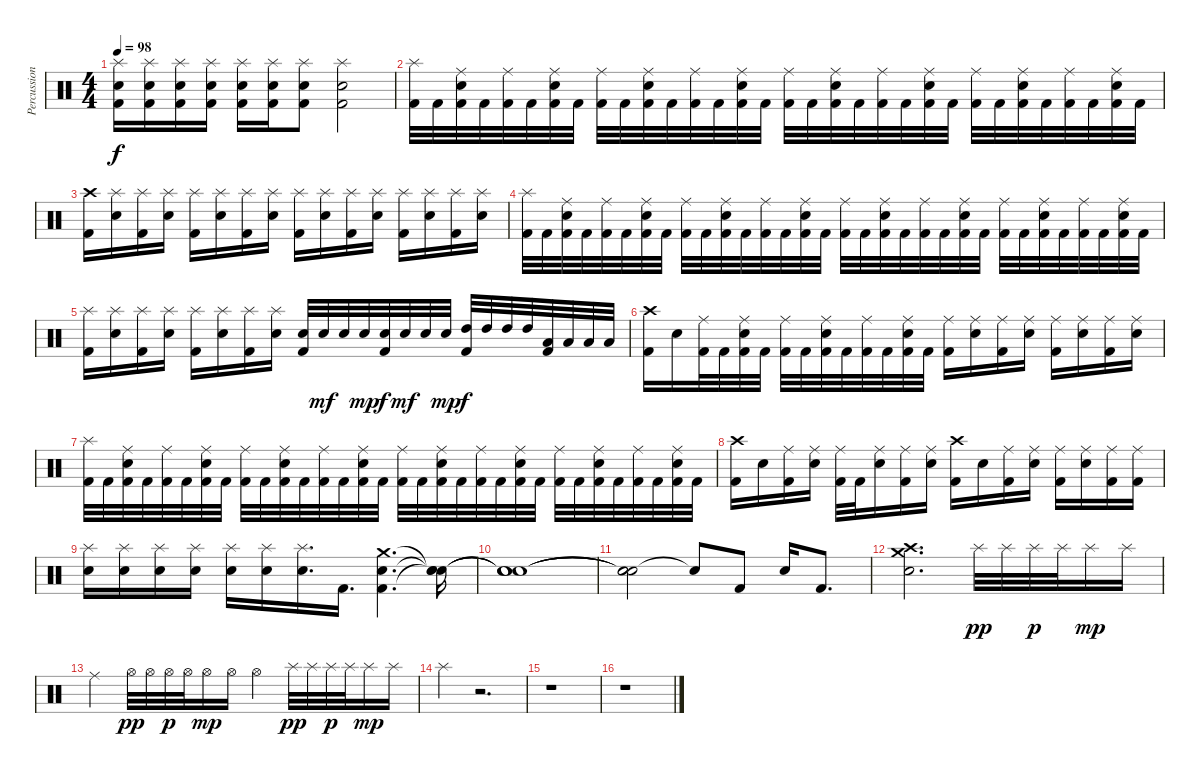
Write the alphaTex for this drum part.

\track ("Percussion" "Percussion") {instrument percussion}
\staff {score}
\articulation defaults
\ts (4 4)
\tempo 98
\clef neutral
\ks c
("Splash (hit)" "Snare (hit) 2" "Kick (hit) 2").16{dy f} ("Splash (hit)" "Snare (hit) 2" "Kick (hit) 2").16 ("Splash (hit)" "Snare (hit) 2" "Kick (hit) 2").16 ("Splash (hit)" "Snare (hit) 2" "Kick (hit) 2").16 ("Splash (hit)" "Snare (hit) 2" "Kick (hit) 2").16 ("Splash (hit)" "Snare (hit) 2" "Kick (hit) 2").16 ("Splash (hit)" "Snare (hit) 2" "Kick (hit) 2").8 ("Splash (hit)" "Snare (hit) 2" "Kick (hit) 2").2 |
("Splash (hit)" "Kick (hit) 2").32 "Kick (hit) 2".32 ("Ride (middle)" "Snare (hit) 2" "Kick (hit) 2").32 "Kick (hit) 2".32 ("Ride (middle)" "Kick (hit) 2").32 "Kick (hit) 2".32 ("Ride (middle)" "Snare (hit) 2" "Kick (hit) 2").32 "Kick (hit) 2".32 ("Ride (middle)" "Kick (hit) 2").32 "Kick (hit) 2".32 ("Ride (middle)" "Snare (hit) 2" "Kick (hit) 2").32 "Kick (hit) 2".32 ("Ride (middle)" "Kick (hit) 2").32 "Kick (hit) 2".32 ("Ride (middle)" "Snare (hit) 2" "Kick (hit) 2").32 "Kick (hit) 2".32 ("Ride (middle)" "Kick (hit) 2").32 "Kick (hit) 2".32 ("Ride (middle)" "Snare (hit) 2" "Kick (hit) 2").32 "Kick (hit) 2".32 ("Ride (middle)" "Kick (hit) 2").32 "Kick (hit) 2".32 ("Ride (middle)" "Snare (hit) 2" "Kick (hit) 2").32 "Kick (hit) 2".32 ("Ride (middle)" "Kick (hit) 2").32 "Kick (hit) 2".32 ("Ride (middle)" "Snare (hit) 2" "Kick (hit) 2").32 "Kick (hit) 2".32 ("Ride (middle)" "Kick (hit) 2").32 "Kick (hit) 2".32 ("Ride (middle)" "Snare (hit) 2" "Kick (hit) 2").32 "Kick (hit) 2".32 |
("Crash high (hit)" "Kick (hit) 2").16 ("Splash (hit)" "Snare (hit) 2").16 ("Splash (hit)" "Kick (hit) 2").16 ("Splash (hit)" "Snare (hit) 2").16 ("Splash (hit)" "Kick (hit) 2").16 ("Splash (hit)" "Snare (hit) 2").16 ("Splash (hit)" "Kick (hit) 2").16 ("Splash (hit)" "Snare (hit) 2").16 ("Splash (hit)" "Kick (hit) 2").16 ("Splash (hit)" "Snare (hit) 2").16 ("Splash (hit)" "Kick (hit) 2").16 ("Splash (hit)" "Snare (hit) 2").16 ("Splash (hit)" "Kick (hit) 2").16 ("Splash (hit)" "Snare (hit) 2").16 ("Splash (hit)" "Kick (hit) 2").16 ("Splash (hit)" "Snare (hit) 2").16 |
("Splash (hit)" "Kick (hit) 2").32 "Kick (hit) 2".32 ("Ride (middle)" "Snare (hit) 2" "Kick (hit) 2").32 "Kick (hit) 2".32 ("Ride (middle)" "Kick (hit) 2").32 "Kick (hit) 2".32 ("Ride (middle)" "Snare (hit) 2" "Kick (hit) 2").32 "Kick (hit) 2".32 ("Ride (middle)" "Kick (hit) 2").32 "Kick (hit) 2".32 ("Ride (middle)" "Snare (hit) 2" "Kick (hit) 2").32 "Kick (hit) 2".32 ("Ride (middle)" "Kick (hit) 2").32 "Kick (hit) 2".32 ("Ride (middle)" "Snare (hit) 2" "Kick (hit) 2").32 "Kick (hit) 2".32 ("Ride (middle)" "Kick (hit) 2").32 "Kick (hit) 2".32 ("Ride (middle)" "Snare (hit) 2" "Kick (hit) 2").32 "Kick (hit) 2".32 ("Ride (middle)" "Kick (hit) 2").32 "Kick (hit) 2".32 ("Ride (middle)" "Snare (hit) 2" "Kick (hit) 2").32 "Kick (hit) 2".32 ("Ride (middle)" "Kick (hit) 2").32 "Kick (hit) 2".32 ("Ride (middle)" "Snare (hit) 2" "Kick (hit) 2").32 "Kick (hit) 2".32 ("Ride (middle)" "Kick (hit) 2").32 "Kick (hit) 2".32 ("Ride (middle)" "Snare (hit) 2" "Kick (hit) 2").32 "Kick (hit) 2".32 |
("Splash (hit)" "Kick (hit) 2").16 ("Splash (hit)" "Snare (hit) 2").16 ("Splash (hit)" "Kick (hit) 2").16 ("Splash (hit)" "Snare (hit) 2").16 ("Splash (hit)" "Kick (hit) 2").16 ("Splash (hit)" "Snare (hit) 2").16 ("Splash (hit)" "Kick (hit) 2").16 ("Splash (hit)" "Snare (hit) 2").16 ("Snare (hit) 2" "Kick (hit) 2").32 "Snare (hit) 2".32{dy mf} "Snare (hit) 2".32 "Snare (hit) 2".32{dy mp} ("Snare (hit) 2" "Kick (hit) 2").32{dy f} "Snare (hit) 2".32{dy mf} "Snare (hit) 2".32 "Snare (hit) 2".32{dy mp} ("High Tom (hit)" "Kick (hit) 2").32{dy f} "High Tom (hit)".32 "High Tom (hit)".32 "High Tom (hit)".32 ("Low Tom (hit)" "Kick (hit) 2").32 "Low Tom (hit)".32 "Low Tom (hit)".32 "Low Tom (hit)".32 |
("Kick (hit) 2" "Crash high (hit)").16 "Snare (hit) 2".16 ("Kick (hit) 2" "Ride (middle)").32 "Kick (hit) 2".32 ("Kick (hit) 2" "Snare (hit) 2" "Ride (middle)").32 "Kick (hit) 2".32 ("Kick (hit) 2" "Ride (middle)").32 "Kick (hit) 2".32 ("Kick (hit) 2" "Snare (hit) 2" "Ride (middle)").32 "Kick (hit) 2".32 ("Kick (hit) 2" "Ride (middle)").32 "Kick (hit) 2".32 ("Kick (hit) 2" "Snare (hit) 2" "Ride (middle)").32 "Kick (hit) 2".32 ("Kick (hit) 2" "Ride (middle)").16 ("Snare (hit) 2" "Ride (middle)").16 ("Kick (hit) 2" "Ride (middle)").16 ("Snare (hit) 2" "Ride (middle)").16 ("Kick (hit) 2" "Ride (middle)").16 ("Snare (hit) 2" "Ride (middle)").16 ("Kick (hit) 2" "Ride (middle)").16 ("Snare (hit) 2" "Ride (middle)").16 |
("Splash (hit)" "Kick (hit) 2").32 "Kick (hit) 2".32 ("Ride (middle)" "Snare (hit) 2" "Kick (hit) 2").32 "Kick (hit) 2".32 ("Ride (middle)" "Kick (hit) 2").32 "Kick (hit) 2".32 ("Ride (middle)" "Snare (hit) 2" "Kick (hit) 2").32 "Kick (hit) 2".32 ("Ride (middle)" "Kick (hit) 2").32 "Kick (hit) 2".32 ("Ride (middle)" "Snare (hit) 2" "Kick (hit) 2").32 "Kick (hit) 2".32 ("Ride (middle)" "Kick (hit) 2").32 "Kick (hit) 2".32 ("Ride (middle)" "Snare (hit) 2" "Kick (hit) 2").32 "Kick (hit) 2".32 ("Ride (middle)" "Kick (hit) 2").32 "Kick (hit) 2".32 ("Ride (middle)" "Snare (hit) 2" "Kick (hit) 2").32 "Kick (hit) 2".32 ("Ride (middle)" "Kick (hit) 2").32 "Kick (hit) 2".32 ("Ride (middle)" "Snare (hit) 2" "Kick (hit) 2").32 "Kick (hit) 2".32 ("Ride (middle)" "Kick (hit) 2").32 "Kick (hit) 2".32 ("Ride (middle)" "Snare (hit) 2" "Kick (hit) 2").32 "Kick (hit) 2".32 ("Ride (middle)" "Kick (hit) 2").32 "Kick (hit) 2".32 ("Ride (middle)" "Snare (hit) 2" "Kick (hit) 2").32 "Kick (hit) 2".32 |
("Kick (hit) 2" "Crash high (hit)").16 "Snare (hit) 2".16 ("Kick (hit) 2" "Ride (middle)").16 ("Snare (hit) 2" "Ride (middle)").16 ("Kick (hit) 2" "Ride (middle)").32 "Kick (hit) 2".32 ("Snare (hit) 2" "Ride (middle)").16 ("Kick (hit) 2" "Ride (middle)").16 ("Snare (hit) 2" "Ride (middle)").16 ("Kick (hit) 2" "Crash high (hit)").16 "Snare (hit) 2".16 ("Kick (hit) 2" "Ride (middle)").16 ("Snare (hit) 2" "Ride (middle)").16 ("Kick (hit) 2" "Ride (middle)").16 ("Snare (hit) 2" "Ride (middle)").16 ("Kick (hit) 2" "Ride (middle)").16 ("Kick (hit) 2" "Ride (middle)").16 |
("Splash (hit)" "Snare (hit) 2").16 ("Splash (hit)" "Snare (hit) 2").16 ("Splash (hit)" "Snare (hit) 2").16 ("Splash (hit)" "Snare (hit) 2").16 ("Splash (hit)" "Snare (hit) 2").16 ("Splash (hit)" "Snare (hit) 2").16 ("Splash (hit)" "Snare (hit) 2").16{d} "Kick (hit) 2".16{d} ("Crash medium (hit)" "Snare (hit) 2" "Kick (hit) 2").4{d} ("Snare (hit)"{t} "Snare (hit)"{t} "Snare (hit)"{t}).16 |
("Snare (hit)"{t} "Snare (hit)"{t} "Snare (hit)"{t}).1 |
("Snare (hit)"{t} "Snare (hit)"{t} "Snare (hit)"{t}).2 "Snare (hit)"{t}.8 "Kick (hit) 2".8 "Snare (hit) 2".16 "Kick (hit) 2".8{d} |
("Snare (hit) 2" "Crash medium (hit)" "Crash high (hit)").2{d} "Splash (hit)".32{dy pp} "Splash (hit)".32 "Splash (hit)".32{dy p} "Splash (hit)".32 "Splash (hit)".16{dy mp} "Splash (hit)".16 |
"Ride (middle)".4 "Hi-Hat (open)".32{dy pp} "Hi-Hat (open)".32 "Hi-Hat (open)".32{dy p} "Hi-Hat (open)".32 "Hi-Hat (open)".16{dy mp} "Hi-Hat (open)".16 "Hi-Hat (open)".4 "Splash (hit)".32{dy pp} "Splash (hit)".32 "Splash (hit)".32{dy p} "Splash (hit)".32 "Splash (hit)".16{dy mp} "Splash (hit)".16 |
"Splash (hit)".4 r.2{d} |
r.1 |
r.1
